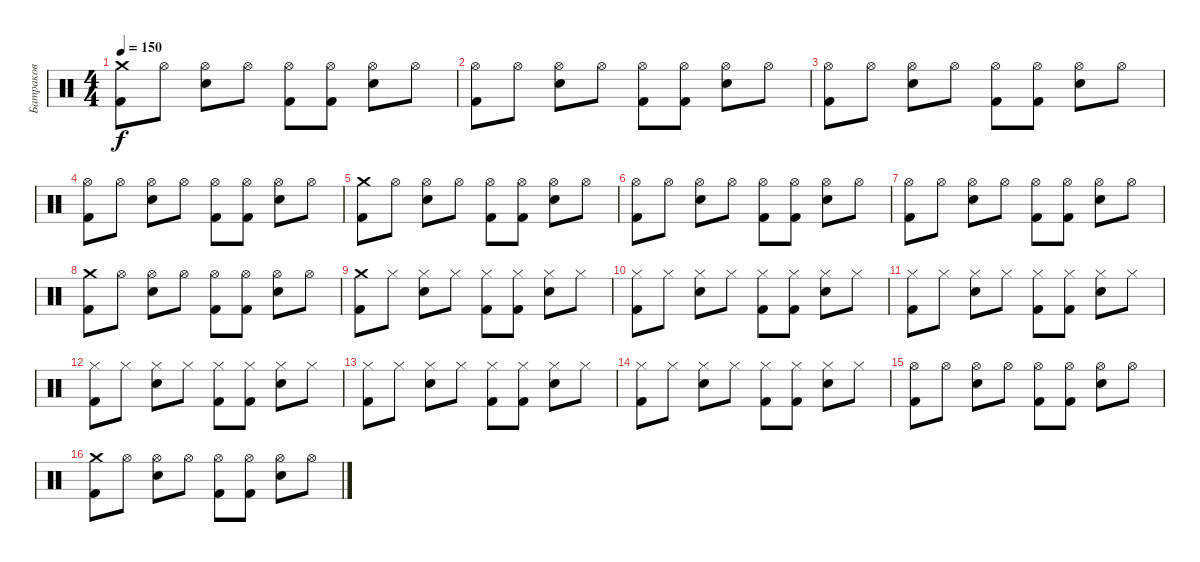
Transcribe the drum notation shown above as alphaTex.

\track ("Батраков" "Батраков") {instrument percussion}
\staff {score}
\articulation defaults
\ts (4 4)
\tempo 150
\clef neutral
\ks c
("Kick (hit) 2" "Crash medium (hit)").8{dy f} "Hi-Hat (open)".8 ("Electric Snare (hit)" "Hi-Hat (open)").8 "Hi-Hat (open)".8 ("Kick (hit) 2" "Hi-Hat (open)").8 ("Kick (hit) 2" "Hi-Hat (open)").8 ("Electric Snare (hit)" "Hi-Hat (open)").8 "Hi-Hat (open)".8 |
("Kick (hit) 2" "Hi-Hat (open)").8 "Hi-Hat (open)".8 ("Electric Snare (hit)" "Hi-Hat (open)").8 "Hi-Hat (open)".8 ("Kick (hit) 2" "Hi-Hat (open)").8 ("Kick (hit) 2" "Hi-Hat (open)").8 ("Electric Snare (hit)" "Hi-Hat (open)").8 "Hi-Hat (open)".8 |
("Kick (hit) 2" "Hi-Hat (open)").8 "Hi-Hat (open)".8 ("Electric Snare (hit)" "Hi-Hat (open)").8 "Hi-Hat (open)".8 ("Kick (hit) 2" "Hi-Hat (open)").8 ("Kick (hit) 2" "Hi-Hat (open)").8 ("Electric Snare (hit)" "Hi-Hat (open)").8 "Hi-Hat (open)".8 |
("Kick (hit) 2" "Hi-Hat (open)").8 "Hi-Hat (open)".8 ("Electric Snare (hit)" "Hi-Hat (open)").8 "Hi-Hat (open)".8 ("Kick (hit) 2" "Hi-Hat (open)").8 ("Kick (hit) 2" "Hi-Hat (open)").8 ("Electric Snare (hit)" "Hi-Hat (open)").8 "Hi-Hat (open)".8 |
("Kick (hit) 2" "Crash medium (hit)").8 "Hi-Hat (open)".8 ("Electric Snare (hit)" "Hi-Hat (open)").8 "Hi-Hat (open)".8 ("Kick (hit) 2" "Hi-Hat (open)").8 ("Kick (hit) 2" "Hi-Hat (open)").8 ("Electric Snare (hit)" "Hi-Hat (open)").8 "Hi-Hat (open)".8 |
("Kick (hit) 2" "Hi-Hat (open)").8 "Hi-Hat (open)".8 ("Electric Snare (hit)" "Hi-Hat (open)").8 "Hi-Hat (open)".8 ("Kick (hit) 2" "Hi-Hat (open)").8 ("Kick (hit) 2" "Hi-Hat (open)").8 ("Electric Snare (hit)" "Hi-Hat (open)").8 "Hi-Hat (open)".8 |
("Kick (hit) 2" "Hi-Hat (open)").8 "Hi-Hat (open)".8 ("Electric Snare (hit)" "Hi-Hat (open)").8 "Hi-Hat (open)".8 ("Kick (hit) 2" "Hi-Hat (open)").8 ("Kick (hit) 2" "Hi-Hat (open)").8 ("Electric Snare (hit)" "Hi-Hat (open)").8 "Hi-Hat (open)".8 |
("Kick (hit) 2" "Crash medium (hit)").8 "Hi-Hat (open)".8 ("Electric Snare (hit)" "Hi-Hat (open)").8 "Hi-Hat (open)".8 ("Kick (hit) 2" "Hi-Hat (open)").8 ("Kick (hit) 2" "Hi-Hat (open)").8 ("Electric Snare (hit)" "Hi-Hat (open)").8 "Hi-Hat (open)".8 |
("Kick (hit) 2" "Crash medium (hit)").8 "Hi-Hat (closed)".8 ("Electric Snare (hit)" "Hi-Hat (closed)").8 "Hi-Hat (closed)".8 ("Kick (hit) 2" "Hi-Hat (closed)").8 ("Kick (hit) 2" "Hi-Hat (closed)").8 ("Electric Snare (hit)" "Hi-Hat (closed)").8 "Hi-Hat (closed)".8 |
("Kick (hit) 2" "Hi-Hat (closed)").8 "Hi-Hat (closed)".8 ("Electric Snare (hit)" "Hi-Hat (closed)").8 "Hi-Hat (closed)".8 ("Kick (hit) 2" "Hi-Hat (closed)").8 ("Kick (hit) 2" "Hi-Hat (closed)").8 ("Electric Snare (hit)" "Hi-Hat (closed)").8 "Hi-Hat (closed)".8 |
("Kick (hit) 2" "Hi-Hat (closed)").8 "Hi-Hat (closed)".8 ("Electric Snare (hit)" "Hi-Hat (closed)").8 "Hi-Hat (closed)".8 ("Kick (hit) 2" "Hi-Hat (closed)").8 ("Kick (hit) 2" "Hi-Hat (closed)").8 ("Electric Snare (hit)" "Hi-Hat (closed)").8 "Hi-Hat (closed)".8 |
("Kick (hit) 2" "Hi-Hat (closed)").8 "Hi-Hat (closed)".8 ("Electric Snare (hit)" "Hi-Hat (closed)").8 "Hi-Hat (closed)".8 ("Kick (hit) 2" "Hi-Hat (closed)").8 ("Kick (hit) 2" "Hi-Hat (closed)").8 ("Electric Snare (hit)" "Hi-Hat (closed)").8 "Hi-Hat (closed)".8 |
("Kick (hit) 2" "Hi-Hat (closed)").8 "Hi-Hat (closed)".8 ("Electric Snare (hit)" "Hi-Hat (closed)").8 "Hi-Hat (closed)".8 ("Kick (hit) 2" "Hi-Hat (closed)").8 ("Kick (hit) 2" "Hi-Hat (closed)").8 ("Electric Snare (hit)" "Hi-Hat (closed)").8 "Hi-Hat (closed)".8 |
("Kick (hit) 2" "Hi-Hat (closed)").8 "Hi-Hat (closed)".8 ("Electric Snare (hit)" "Hi-Hat (closed)").8 "Hi-Hat (closed)".8 ("Kick (hit) 2" "Hi-Hat (closed)").8 ("Kick (hit) 2" "Hi-Hat (closed)").8 ("Electric Snare (hit)" "Hi-Hat (closed)").8 "Hi-Hat (closed)".8 |
("Kick (hit) 2" "Hi-Hat (open)").8 "Hi-Hat (open)".8 ("Electric Snare (hit)" "Hi-Hat (open)").8 "Hi-Hat (open)".8 ("Kick (hit) 2" "Hi-Hat (open)").8 ("Kick (hit) 2" "Hi-Hat (open)").8 ("Electric Snare (hit)" "Hi-Hat (open)").8 "Hi-Hat (open)".8 |
("Kick (hit) 2" "Crash medium (hit)").8 "Hi-Hat (open)".8 ("Electric Snare (hit)" "Hi-Hat (open)").8 "Hi-Hat (open)".8 ("Kick (hit) 2" "Hi-Hat (open)").8 ("Kick (hit) 2" "Hi-Hat (open)").8 ("Electric Snare (hit)" "Hi-Hat (open)").8 "Hi-Hat (open)".8
